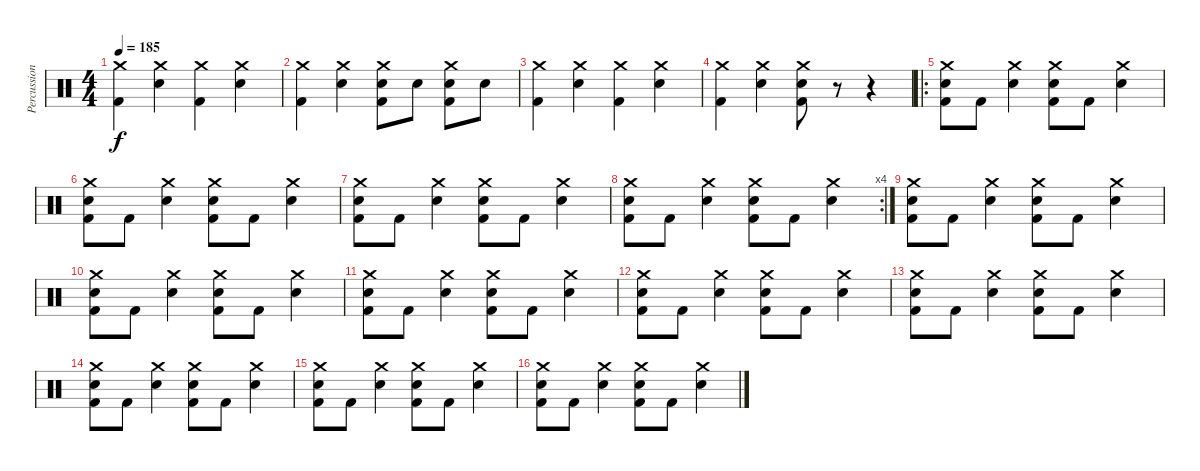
\track ("Percussion" "Percussion") {instrument percussion}
\staff {score}
\articulation defaults
\ts (4 4)
\tempo 185
\clef neutral
\ks c
("Crash medium (hit)" "Kick (hit) 2").4{dy f} ("Crash medium (hit)" "Snare (hit) 2").4 ("Crash medium (hit)" "Kick (hit) 2").4 ("Crash medium (hit)" "Snare (hit) 2").4 |
("Crash medium (hit)" "Kick (hit) 2").4 ("Crash medium (hit)" "Snare (hit) 2").4 ("Crash medium (hit)" "Snare (hit) 2" "Kick (hit) 2").8 "Snare (hit) 2".8 ("Crash medium (hit)" "Snare (hit) 2" "Kick (hit) 2").8 "Snare (hit) 2".8 |
("Crash medium (hit)" "Kick (hit) 2").4 ("Crash medium (hit)" "Snare (hit) 2").4 ("Crash medium (hit)" "Kick (hit) 2").4 ("Crash medium (hit)" "Snare (hit) 2").4 |
("Crash medium (hit)" "Kick (hit) 2").4 ("Crash medium (hit)" "Snare (hit) 2").4 ("Crash medium (hit)" "Snare (hit) 2" "Kick (hit) 2").8 r.8 r.4 |
\ro
("Crash medium (hit)" "Snare (hit) 2" "Kick (hit) 2").8 "Kick (hit) 2".8 ("Crash medium (hit)" "Snare (hit) 2").4 ("Crash medium (hit)" "Snare (hit) 2" "Kick (hit) 2").8 "Kick (hit) 2".8 ("Crash medium (hit)" "Snare (hit) 2").4 |
("Crash medium (hit)" "Snare (hit) 2" "Kick (hit) 2").8 "Kick (hit) 2".8 ("Crash medium (hit)" "Snare (hit) 2").4 ("Crash medium (hit)" "Snare (hit) 2" "Kick (hit) 2").8 "Kick (hit) 2".8 ("Crash medium (hit)" "Snare (hit) 2").4 |
("Crash medium (hit)" "Snare (hit) 2" "Kick (hit) 2").8 "Kick (hit) 2".8 ("Crash medium (hit)" "Snare (hit) 2").4 ("Crash medium (hit)" "Snare (hit) 2" "Kick (hit) 2").8 "Kick (hit) 2".8 ("Crash medium (hit)" "Snare (hit) 2").4 |
\rc 4
("Crash medium (hit)" "Snare (hit) 2" "Kick (hit) 2").8 "Kick (hit) 2".8 ("Crash medium (hit)" "Snare (hit) 2").4 ("Crash medium (hit)" "Snare (hit) 2" "Kick (hit) 2").8 "Kick (hit) 2".8 ("Crash medium (hit)" "Snare (hit) 2").4 |
("Crash medium (hit)" "Snare (hit) 2" "Kick (hit) 2").8 "Kick (hit) 2".8 ("Crash medium (hit)" "Snare (hit) 2").4 ("Crash medium (hit)" "Snare (hit) 2" "Kick (hit) 2").8 "Kick (hit) 2".8 ("Crash medium (hit)" "Snare (hit) 2").4 |
("Crash medium (hit)" "Snare (hit) 2" "Kick (hit) 2").8 "Kick (hit) 2".8 ("Crash medium (hit)" "Snare (hit) 2").4 ("Crash medium (hit)" "Snare (hit) 2" "Kick (hit) 2").8 "Kick (hit) 2".8 ("Crash medium (hit)" "Snare (hit) 2").4 |
("Crash medium (hit)" "Snare (hit) 2" "Kick (hit) 2").8 "Kick (hit) 2".8 ("Crash medium (hit)" "Snare (hit) 2").4 ("Crash medium (hit)" "Snare (hit) 2" "Kick (hit) 2").8 "Kick (hit) 2".8 ("Crash medium (hit)" "Snare (hit) 2").4 |
("Crash medium (hit)" "Snare (hit) 2" "Kick (hit) 2").8 "Kick (hit) 2".8 ("Crash medium (hit)" "Snare (hit) 2").4 ("Crash medium (hit)" "Snare (hit) 2" "Kick (hit) 2").8 "Kick (hit) 2".8 ("Crash medium (hit)" "Snare (hit) 2").4 |
("Crash medium (hit)" "Snare (hit) 2" "Kick (hit) 2").8 "Kick (hit) 2".8 ("Crash medium (hit)" "Snare (hit) 2").4 ("Crash medium (hit)" "Snare (hit) 2" "Kick (hit) 2").8 "Kick (hit) 2".8 ("Crash medium (hit)" "Snare (hit) 2").4 |
("Crash medium (hit)" "Snare (hit) 2" "Kick (hit) 2").8 "Kick (hit) 2".8 ("Crash medium (hit)" "Snare (hit) 2").4 ("Crash medium (hit)" "Snare (hit) 2" "Kick (hit) 2").8 "Kick (hit) 2".8 ("Crash medium (hit)" "Snare (hit) 2").4 |
("Crash medium (hit)" "Snare (hit) 2" "Kick (hit) 2").8 "Kick (hit) 2".8 ("Crash medium (hit)" "Snare (hit) 2").4 ("Crash medium (hit)" "Snare (hit) 2" "Kick (hit) 2").8 "Kick (hit) 2".8 ("Crash medium (hit)" "Snare (hit) 2").4 |
("Crash medium (hit)" "Snare (hit) 2" "Kick (hit) 2").8 "Kick (hit) 2".8 ("Crash medium (hit)" "Snare (hit) 2").4 ("Crash medium (hit)" "Snare (hit) 2" "Kick (hit) 2").8 "Kick (hit) 2".8 ("Crash medium (hit)" "Snare (hit) 2").4
